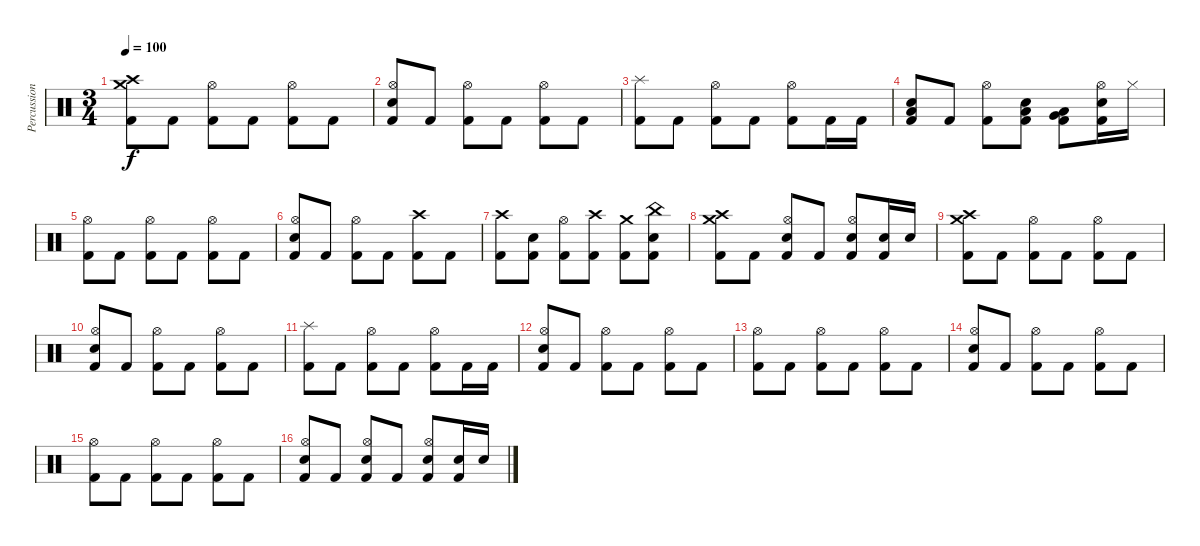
\track ("Percussion" "Percussion") {instrument percussion}
\staff {score}
\articulation defaults
\ts (3 4)
\tempo 100
\clef neutral
\ks c
("Crash high (hit)" "Crash medium (hit)" "Kick (hit) 2").8{dy f} "Kick (hit) 2".8 ("Hi-Hat (open)" "Kick (hit) 2").8 "Kick (hit) 2".8 ("Hi-Hat (open)" "Kick (hit) 2").8 "Kick (hit) 2".8 |
("Hi-Hat (open)" "Electric Snare (hit)" "Kick (hit) 2").8 "Kick (hit) 2".8 ("Hi-Hat (open)" "Kick (hit) 2").8 "Kick (hit) 2".8 ("Hi-Hat (open)" "Kick (hit) 2").8 "Kick (hit) 2".8 |
("Splash (hit)" "Kick (hit) 2").8 "Kick (hit) 2".8 ("Hi-Hat (open)" "Kick (hit) 2").8 "Kick (hit) 2".8 ("Hi-Hat (open)" "Kick (hit) 2").8 "Kick (hit) 2".16 "Kick (hit) 2".16 |
("Low Tom (hit)" "Electric Snare (hit)" "Kick (hit) 2").8 "Kick (hit) 2".8 ("Hi-Hat (open)" "Kick (hit) 2").8 ("Low Tom (hit)" "Electric Snare (hit)" "Kick (hit) 2").8 ("Low Tom (hit)" "Very Low Tom (hit)" "Kick (hit) 2").8 ("Hi-Hat (open)" "Electric Snare (hit)" "Kick (hit) 2").16 "Hi-Hat (closed)".16 |
("Hi-Hat (open)" "Kick (hit) 2").8 "Kick (hit) 2".8 ("Hi-Hat (open)" "Kick (hit) 2").8 "Kick (hit) 2".8 ("Hi-Hat (open)" "Kick (hit) 2").8 "Kick (hit) 2".8 |
("Hi-Hat (open)" "Electric Snare (hit)" "Kick (hit) 2").8 "Kick (hit) 2".8 ("Hi-Hat (open)" "Kick (hit) 2").8 "Kick (hit) 2".8 ("Crash high (hit)" "Kick (hit) 2").8 "Kick (hit) 2".8 |
("Crash high (hit)" "Kick (hit) 2").8 ("Electric Snare (hit)" "Kick (hit) 2").8 ("Hi-Hat (open)" "Kick (hit) 2").8 ("Crash high (hit)" "Kick (hit) 2").8 ("Crash medium (hit)" "Kick (hit) 2").8 ("China (hit)" "Electric Snare (hit)" "Kick (hit) 2").8 |
("Crash medium (hit)" "Crash high (hit)" "Kick (hit) 2").8 "Kick (hit) 2".8 ("Hi-Hat (open)" "Electric Snare (hit)" "Kick (hit) 2").8 "Kick (hit) 2".8 ("Hi-Hat (open)" "Electric Snare (hit)" "Kick (hit) 2").8 ("Electric Snare (hit)" "Kick (hit) 2").16 "Electric Snare (hit)".16 |
("Crash high (hit)" "Crash medium (hit)" "Kick (hit) 2").8 "Kick (hit) 2".8 ("Hi-Hat (open)" "Kick (hit) 2").8 "Kick (hit) 2".8 ("Hi-Hat (open)" "Kick (hit) 2").8 "Kick (hit) 2".8 |
("Hi-Hat (open)" "Electric Snare (hit)" "Kick (hit) 2").8 "Kick (hit) 2".8 ("Hi-Hat (open)" "Kick (hit) 2").8 "Kick (hit) 2".8 ("Hi-Hat (open)" "Kick (hit) 2").8 "Kick (hit) 2".8 |
("Splash (hit)" "Kick (hit) 2").8 "Kick (hit) 2".8 ("Hi-Hat (open)" "Kick (hit) 2").8 "Kick (hit) 2".8 ("Hi-Hat (open)" "Kick (hit) 2").8 "Kick (hit) 2".16 "Kick (hit) 2".16 |
("Hi-Hat (open)" "Electric Snare (hit)" "Kick (hit) 2").8 "Kick (hit) 2".8 ("Hi-Hat (open)" "Kick (hit) 2").8 "Kick (hit) 2".8 ("Hi-Hat (open)" "Kick (hit) 2").8 "Kick (hit) 2".8 |
("Hi-Hat (open)" "Kick (hit) 2").8 "Kick (hit) 2".8 ("Hi-Hat (open)" "Kick (hit) 2").8 "Kick (hit) 2".8 ("Hi-Hat (open)" "Kick (hit) 2").8 "Kick (hit) 2".8 |
("Hi-Hat (open)" "Electric Snare (hit)" "Kick (hit) 2").8 "Kick (hit) 2".8 ("Hi-Hat (open)" "Kick (hit) 2").8 "Kick (hit) 2".8 ("Hi-Hat (open)" "Kick (hit) 2").8 "Kick (hit) 2".8 |
("Hi-Hat (open)" "Kick (hit) 2").8 "Kick (hit) 2".8 ("Hi-Hat (open)" "Kick (hit) 2").8 "Kick (hit) 2".8 ("Hi-Hat (open)" "Kick (hit) 2").8 "Kick (hit) 2".8 |
("Hi-Hat (open)" "Electric Snare (hit)" "Kick (hit) 2").8 "Kick (hit) 2".8 ("Hi-Hat (open)" "Electric Snare (hit)" "Kick (hit) 2").8 "Kick (hit) 2".8 ("Hi-Hat (open)" "Electric Snare (hit)" "Kick (hit) 2").8 ("Electric Snare (hit)" "Kick (hit) 2").16 "Electric Snare (hit)".16
